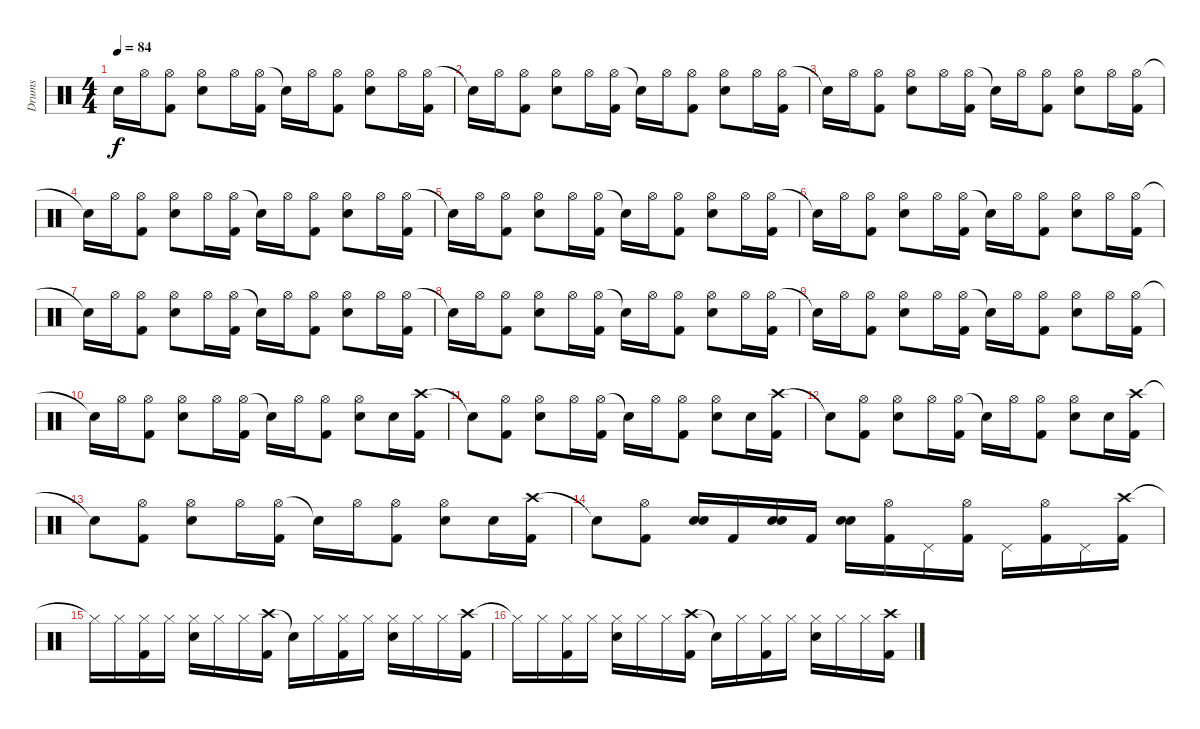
\track ("Drums" "Drums") {instrument percussion}
\staff {score}
\articulation defaults
\ts (4 4)
\tempo 84
\clef neutral
\ks c "Snare (hit)"{t}.16{dy f} "Hi-Hat (open)".16
("Hi-Hat (open)" "Kick (hit) 2").8 ("Hi-Hat (open)" "Snare (hit) 2").8 "Hi-Hat (open)".16 ("Hi-Hat (open)" "Kick (hit) 2").16 "Snare (hit)"{t}.16 "Hi-Hat (open)".16 ("Hi-Hat (open)" "Kick (hit) 2").8 ("Hi-Hat (open)" "Snare (hit) 2").8 "Hi-Hat (open)".16 ("Hi-Hat (open)" "Kick (hit) 2").16 |
"Snare (hit)"{t}.16 "Hi-Hat (open)".16 ("Hi-Hat (open)" "Kick (hit) 2").8 ("Hi-Hat (open)" "Snare (hit) 2").8 "Hi-Hat (open)".16 ("Hi-Hat (open)" "Kick (hit) 2").16 "Snare (hit)"{t}.16 "Hi-Hat (open)".16 ("Hi-Hat (open)" "Kick (hit) 2").8 ("Hi-Hat (open)" "Snare (hit) 2").8 "Hi-Hat (open)".16 ("Hi-Hat (open)" "Kick (hit) 2").16 |
"Snare (hit)"{t}.16 "Hi-Hat (open)".16 ("Hi-Hat (open)" "Kick (hit) 2").8 ("Hi-Hat (open)" "Snare (hit) 2").8 "Hi-Hat (open)".16 ("Hi-Hat (open)" "Kick (hit) 2").16 "Snare (hit)"{t}.16 "Hi-Hat (open)".16 ("Hi-Hat (open)" "Kick (hit) 2").8 ("Hi-Hat (open)" "Snare (hit) 2").8 "Hi-Hat (open)".16 ("Hi-Hat (open)" "Kick (hit) 2").16 |
"Snare (hit)"{t}.16 "Hi-Hat (open)".16 ("Hi-Hat (open)" "Kick (hit) 2").8 ("Hi-Hat (open)" "Snare (hit) 2").8 "Hi-Hat (open)".16 ("Hi-Hat (open)" "Kick (hit) 2").16 "Snare (hit)"{t}.16 "Hi-Hat (open)".16 ("Hi-Hat (open)" "Kick (hit) 2").8 ("Hi-Hat (open)" "Snare (hit) 2").8 "Hi-Hat (open)".16 ("Hi-Hat (open)" "Kick (hit) 2").16 |
"Snare (hit)"{t}.16 "Hi-Hat (open)".16 ("Hi-Hat (open)" "Kick (hit) 2").8 ("Hi-Hat (open)" "Snare (hit) 2").8 "Hi-Hat (open)".16 ("Hi-Hat (open)" "Kick (hit) 2").16 "Snare (hit)"{t}.16 "Hi-Hat (open)".16 ("Hi-Hat (open)" "Kick (hit) 2").8 ("Hi-Hat (open)" "Snare (hit) 2").8 "Hi-Hat (open)".16 ("Hi-Hat (open)" "Kick (hit) 2").16 |
"Snare (hit)"{t}.16 "Hi-Hat (open)".16 ("Hi-Hat (open)" "Kick (hit) 2").8 ("Hi-Hat (open)" "Snare (hit) 2").8 "Hi-Hat (open)".16 ("Hi-Hat (open)" "Kick (hit) 2").16 "Snare (hit)"{t}.16 "Hi-Hat (open)".16 ("Hi-Hat (open)" "Kick (hit) 2").8 ("Hi-Hat (open)" "Snare (hit) 2").8 "Hi-Hat (open)".16 ("Hi-Hat (open)" "Kick (hit) 2").16 |
"Snare (hit)"{t}.16 "Hi-Hat (open)".16 ("Hi-Hat (open)" "Kick (hit) 2").8 ("Hi-Hat (open)" "Snare (hit) 2").8 "Hi-Hat (open)".16 ("Hi-Hat (open)" "Kick (hit) 2").16 "Snare (hit)"{t}.16 "Hi-Hat (open)".16 ("Hi-Hat (open)" "Kick (hit) 2").8 ("Hi-Hat (open)" "Snare (hit) 2").8 "Hi-Hat (open)".16 ("Hi-Hat (open)" "Kick (hit) 2").16 |
"Snare (hit)"{t}.16 "Hi-Hat (open)".16 ("Hi-Hat (open)" "Kick (hit) 2").8 ("Hi-Hat (open)" "Snare (hit) 2").8 "Hi-Hat (open)".16 ("Hi-Hat (open)" "Kick (hit) 2").16 "Snare (hit)"{t}.16 "Hi-Hat (open)".16 ("Hi-Hat (open)" "Kick (hit) 2").8 ("Hi-Hat (open)" "Snare (hit) 2").8 "Hi-Hat (open)".16 ("Hi-Hat (open)" "Kick (hit) 2").16 |
"Snare (hit)"{t}.16 "Hi-Hat (open)".16 ("Hi-Hat (open)" "Kick (hit) 2").8 ("Hi-Hat (open)" "Snare (hit) 2").8 "Hi-Hat (open)".16 ("Hi-Hat (open)" "Kick (hit) 2").16 "Snare (hit)"{t}.16 "Hi-Hat (open)".16 ("Hi-Hat (open)" "Kick (hit) 2").8 ("Hi-Hat (open)" "Snare (hit) 2").8 "Hi-Hat (open)".16 ("Hi-Hat (open)" "Kick (hit) 2").16 |
"Snare (hit)"{t}.16 "Hi-Hat (open)".16 ("Hi-Hat (open)" "Kick (hit) 2").8 ("Hi-Hat (open)" "Snare (hit) 2").8 "Hi-Hat (open)".16 ("Hi-Hat (open)" "Kick (hit) 2").16 "Snare (hit)"{t}.16 "Hi-Hat (open)".16 ("Hi-Hat (open)" "Kick (hit) 2").8 ("Hi-Hat (open)" "Snare (hit) 2").8 "Snare (hit) 2".16 ("Crash high (hit)" "Kick (hit) 2").16 |
"Snare (hit)"{t}.8 ("Hi-Hat (open)" "Kick (hit) 2").8 ("Hi-Hat (open)" "Snare (hit) 2").8 "Hi-Hat (open)".16 ("Hi-Hat (open)" "Kick (hit) 2").16 "Snare (hit)"{t}.16 "Hi-Hat (open)".16 ("Hi-Hat (open)" "Kick (hit) 2").8 ("Hi-Hat (open)" "Snare (hit) 2").8 "Snare (hit) 2".16 ("Crash high (hit)" "Kick (hit) 2").16 |
"Snare (hit)"{t}.8 ("Hi-Hat (open)" "Kick (hit) 2").8 ("Hi-Hat (open)" "Snare (hit) 2").8 "Hi-Hat (open)".16 ("Hi-Hat (open)" "Kick (hit) 2").16 "Snare (hit)"{t}.16 "Hi-Hat (open)".16 ("Hi-Hat (open)" "Kick (hit) 2").8 ("Hi-Hat (open)" "Snare (hit) 2").8 "Snare (hit) 2".16 ("Crash high (hit)" "Kick (hit) 2").16 |
"Snare (hit)"{t}.8 ("Hi-Hat (open)" "Kick (hit) 2").8 ("Hi-Hat (open)" "Snare (hit) 2").8 "Hi-Hat (open)".16 ("Hi-Hat (open)" "Kick (hit) 2").16 "Snare (hit)"{t}.16 "Hi-Hat (open)".16 ("Hi-Hat (open)" "Kick (hit) 2").8 ("Hi-Hat (open)" "Snare (hit) 2").8 "Snare (hit) 2".16 ("Crash high (hit)" "Kick (hit) 2").16 |
"Snare (hit)"{t}.8 ("Hi-Hat (open)" "Kick (hit) 2").8 ("Snare (hit) 2" "Snare (hit) 2").16 "Kick (hit) 2".16 ("Snare (hit) 2" "Snare (hit) 2").16 "Kick (hit) 2".16 ("Snare (hit) 2" "Snare (hit) 2").16 ("Hi-Hat (open)" "Kick (hit) 2").16 "Pedal Hi-Hat (hit)".16 ("Hi-Hat (open)" "Kick (hit) 2").16 "Pedal Hi-Hat (hit)".16 ("Hi-Hat (open)" "Kick (hit) 2").16 "Pedal Hi-Hat (hit)".16 ("Crash high (hit)" "Kick (hit) 2").16 |
"Hi-Hat (closed)"{t}.16 "Hi-Hat (closed)".16 ("Hi-Hat (closed)" "Kick (hit) 2").16 "Hi-Hat (closed)".16 ("Hi-Hat (closed)" "Snare (hit) 2").16 "Hi-Hat (closed)".16 "Hi-Hat (closed)".16 ("Crash high (hit)" "Kick (hit) 2").16 "Snare (hit) 2"{t}.16 "Hi-Hat (closed)".16 ("Hi-Hat (closed)" "Kick (hit) 2").16 "Hi-Hat (closed)".16 ("Hi-Hat (closed)" "Snare (hit) 2").16 "Hi-Hat (closed)".16 "Hi-Hat (closed)".16 ("Crash high (hit)" "Kick (hit) 2").16 |
"Hi-Hat (closed)"{t}.16 "Hi-Hat (closed)".16 ("Hi-Hat (closed)" "Kick (hit) 2").16 "Hi-Hat (closed)".16 ("Hi-Hat (closed)" "Snare (hit) 2").16 "Hi-Hat (closed)".16 "Hi-Hat (closed)".16 ("Crash high (hit)" "Kick (hit) 2").16 "Snare (hit) 2"{t}.16 "Hi-Hat (closed)".16 ("Hi-Hat (closed)" "Kick (hit) 2").16 "Hi-Hat (closed)".16 ("Hi-Hat (closed)" "Snare (hit) 2").16 "Hi-Hat (closed)".16 "Hi-Hat (closed)".16 ("Crash high (hit)" "Kick (hit) 2").16
